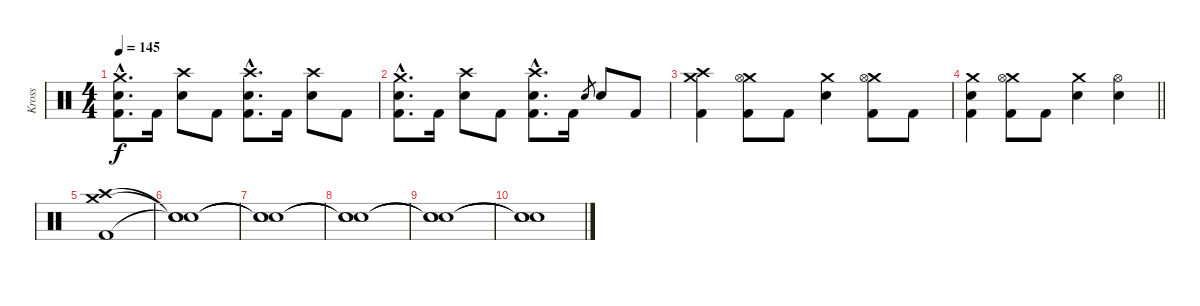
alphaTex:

\track ("Kross" "Kross") {instrument percussion}
\staff {score}
\articulation defaults
\ts (4 4)
\tempo 145
\clef neutral
\ks c
("Crash medium (hit)"{hac} "Electric Snare (hit)"{hac} "Kick (hit) 2"{hac}).8{d dy f} "Kick (hit) 2".16 ("Crash high (hit)" "Electric Snare (hit)").8 "Kick (hit) 2".8 ("Crash high (hit)"{hac} "Electric Snare (hit)"{hac} "Kick (hit) 2"{hac}).8{d} "Kick (hit) 2".16 ("Crash high (hit)" "Electric Snare (hit)").8 "Kick (hit) 2".8 |
("Crash medium (hit)"{hac} "Electric Snare (hit)"{hac} "Kick (hit) 2"{hac}).8{d} "Kick (hit) 2".16 ("Crash high (hit)" "Electric Snare (hit)").8 "Kick (hit) 2".8 ("Crash high (hit)"{hac} "Electric Snare (hit)"{hac} "Kick (hit) 2"{hac}).8{d} "Kick (hit) 2".16 "Electric Snare (hit)".8{gr} "Electric Snare (hit)".8 "Kick (hit) 2".8 |
("Crash medium (hit)" "Crash high (hit)" "Kick (hit) 2").4 ("Crash medium (hit)" "Hi-Hat (open)" "Kick (hit) 2").8 "Kick (hit) 2".8 ("Crash medium (hit)" "Electric Snare (hit)").4 ("Crash medium (hit)" "Hi-Hat (open)" "Kick (hit) 2").8 "Kick (hit) 2".8 |
\barLineRight lightlight
("Crash medium (hit)" "Electric Snare (hit)" "Kick (hit) 2").4 ("Crash medium (hit)" "Hi-Hat (open)" "Kick (hit) 2").8 "Kick (hit) 2".8 ("Crash medium (hit)" "Electric Snare (hit)").4 ("Hi-Hat (open)" "Electric Snare (hit)").4 |
("Crash medium (hit)" "Crash high (hit)" "Kick (hit) 2").1 |
("Snare (hit)"{t} "Snare (hit)"{t} "Snare (hit)"{t}).1 |
("Snare (hit)"{t} "Snare (hit)"{t} "Snare (hit)"{t}).1 |
("Snare (hit)"{t} "Snare (hit)"{t} "Snare (hit)"{t}).1 |
("Snare (hit)"{t} "Snare (hit)"{t} "Snare (hit)"{t}).1 |
("Snare (hit)"{t} "Snare (hit)"{t} "Snare (hit)"{t}).1
